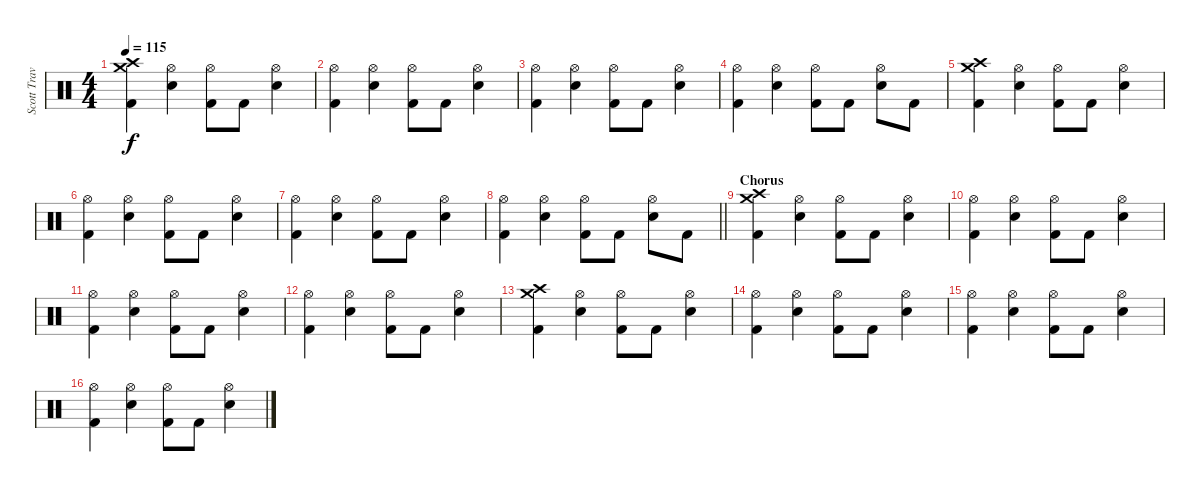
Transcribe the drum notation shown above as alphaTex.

\track ("Scott Travis" "Scott Trav") {instrument percussion}
\staff {score}
\articulation defaults
\ts (4 4)
\tempo 115
\clef neutral
\ks c
("Crash medium (hit)" "Crash high (hit)" "Kick (hit) 2").4{dy f} ("Hi-Hat (open)" "Snare (hit) 2").4 ("Hi-Hat (open)" "Kick (hit) 2").8 "Kick (hit) 2".8 ("Hi-Hat (open)" "Snare (hit) 2").4 |
("Hi-Hat (open)" "Kick (hit) 2").4 ("Hi-Hat (open)" "Snare (hit) 2").4 ("Hi-Hat (open)" "Kick (hit) 2").8 "Kick (hit) 2".8 ("Hi-Hat (open)" "Snare (hit) 2").4 |
("Hi-Hat (open)" "Kick (hit) 2").4 ("Hi-Hat (open)" "Snare (hit) 2").4 ("Hi-Hat (open)" "Kick (hit) 2").8 "Kick (hit) 2".8 ("Hi-Hat (open)" "Snare (hit) 2").4 |
("Hi-Hat (open)" "Kick (hit) 2").4 ("Hi-Hat (open)" "Snare (hit) 2").4 ("Hi-Hat (open)" "Kick (hit) 2").8 "Kick (hit) 2".8 ("Hi-Hat (open)" "Snare (hit) 2").8 "Kick (hit) 2".8 |
("Crash medium (hit)" "Crash high (hit)" "Kick (hit) 2").4 ("Hi-Hat (open)" "Snare (hit) 2").4 ("Hi-Hat (open)" "Kick (hit) 2").8 "Kick (hit) 2".8 ("Hi-Hat (open)" "Snare (hit) 2").4 |
("Hi-Hat (open)" "Kick (hit) 2").4 ("Hi-Hat (open)" "Snare (hit) 2").4 ("Hi-Hat (open)" "Kick (hit) 2").8 "Kick (hit) 2".8 ("Hi-Hat (open)" "Snare (hit) 2").4 |
("Hi-Hat (open)" "Kick (hit) 2").4 ("Hi-Hat (open)" "Snare (hit) 2").4 ("Hi-Hat (open)" "Kick (hit) 2").8 "Kick (hit) 2".8 ("Hi-Hat (open)" "Snare (hit) 2").4 |
\barLineRight lightlight
("Hi-Hat (open)" "Kick (hit) 2").4 ("Hi-Hat (open)" "Snare (hit) 2").4 ("Hi-Hat (open)" "Kick (hit) 2").8 "Kick (hit) 2".8 ("Hi-Hat (open)" "Snare (hit) 2").8 "Kick (hit) 2".8 |
\section ("" "Chorus")
("Crash medium (hit)" "Crash high (hit)" "Kick (hit) 2").4 ("Hi-Hat (open)" "Snare (hit) 2").4 ("Hi-Hat (open)" "Kick (hit) 2").8 "Kick (hit) 2".8 ("Hi-Hat (open)" "Snare (hit) 2").4 |
("Hi-Hat (open)" "Kick (hit) 2").4 ("Hi-Hat (open)" "Snare (hit) 2").4 ("Hi-Hat (open)" "Kick (hit) 2").8 "Kick (hit) 2".8 ("Hi-Hat (open)" "Snare (hit) 2").4 |
("Hi-Hat (open)" "Kick (hit) 2").4 ("Hi-Hat (open)" "Snare (hit) 2").4 ("Hi-Hat (open)" "Kick (hit) 2").8 "Kick (hit) 2".8 ("Hi-Hat (open)" "Snare (hit) 2").4 |
("Hi-Hat (open)" "Kick (hit) 2").4 ("Hi-Hat (open)" "Snare (hit) 2").4 ("Hi-Hat (open)" "Kick (hit) 2").8 "Kick (hit) 2".8 ("Hi-Hat (open)" "Snare (hit) 2").4 |
("Crash medium (hit)" "Crash high (hit)" "Kick (hit) 2").4 ("Hi-Hat (open)" "Snare (hit) 2").4 ("Hi-Hat (open)" "Kick (hit) 2").8 "Kick (hit) 2".8 ("Hi-Hat (open)" "Snare (hit) 2").4 |
("Hi-Hat (open)" "Kick (hit) 2").4 ("Hi-Hat (open)" "Snare (hit) 2").4 ("Hi-Hat (open)" "Kick (hit) 2").8 "Kick (hit) 2".8 ("Hi-Hat (open)" "Snare (hit) 2").4 |
("Hi-Hat (open)" "Kick (hit) 2").4 ("Hi-Hat (open)" "Snare (hit) 2").4 ("Hi-Hat (open)" "Kick (hit) 2").8 "Kick (hit) 2".8 ("Hi-Hat (open)" "Snare (hit) 2").4 |
("Hi-Hat (open)" "Kick (hit) 2").4 ("Hi-Hat (open)" "Snare (hit) 2").4 ("Hi-Hat (open)" "Kick (hit) 2").8 "Kick (hit) 2".8 ("Hi-Hat (open)" "Snare (hit) 2").4
